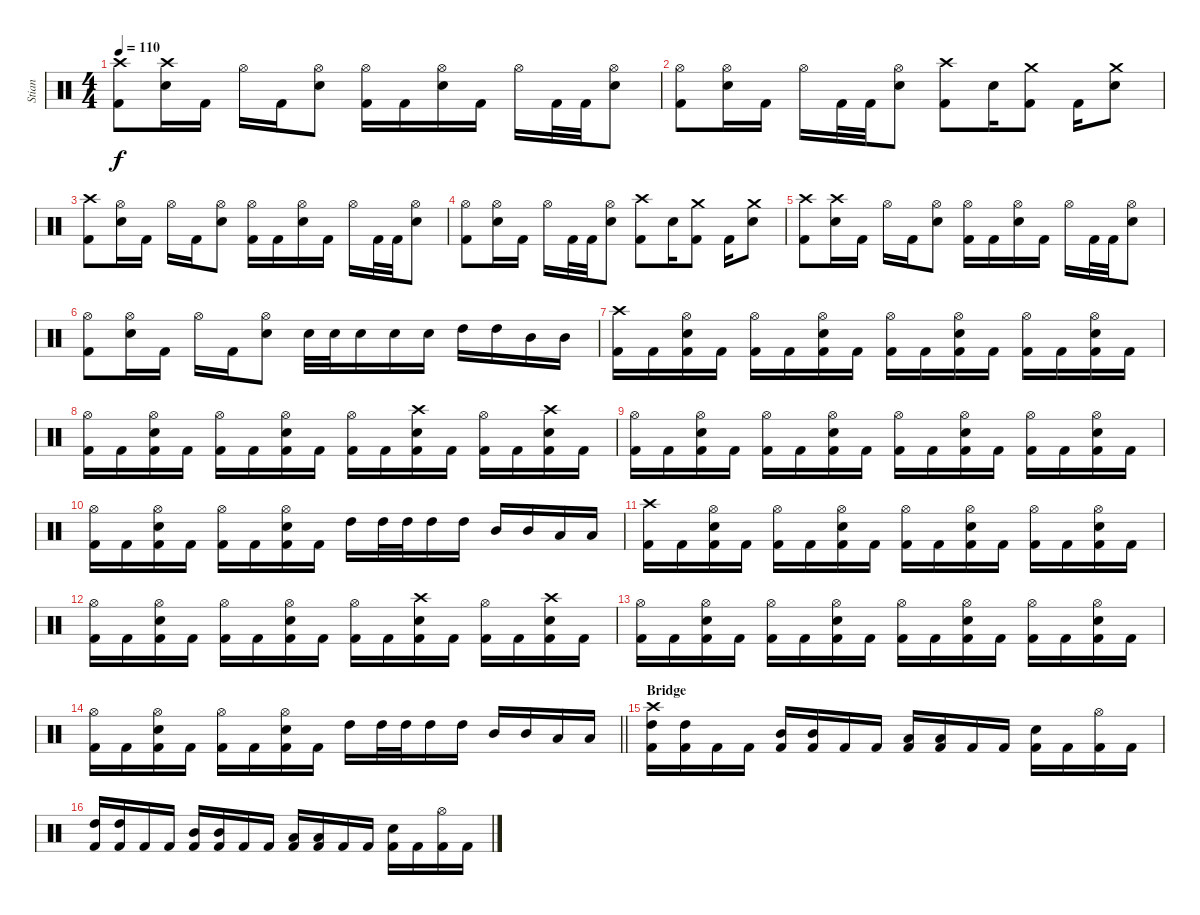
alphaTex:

\track ("Stian" "Stian") {instrument percussion}
\staff {score}
\articulation defaults
\ts (4 4)
\tempo 110
\clef neutral
\ks c
("Crash high (hit)" "Kick (hit) 2").8{dy f} ("Crash high (hit)" "Electric Snare (hit)").16 "Kick (hit) 2".16 "Hi-Hat (open)".16 "Kick (hit) 2".16 ("Hi-Hat (open)" "Electric Snare (hit)").8 ("Hi-Hat (open)" "Kick (hit) 2").16 "Kick (hit) 2".16 ("Hi-Hat (open)" "Electric Snare (hit)").16 "Kick (hit) 2".16 "Hi-Hat (open)".16 "Kick (hit) 2".32 "Kick (hit) 2".32 ("Hi-Hat (open)" "Electric Snare (hit)").8 |
("Hi-Hat (open)" "Kick (hit) 2").8 ("Hi-Hat (open)" "Electric Snare (hit)").16 "Kick (hit) 2".16 "Hi-Hat (open)".16 "Kick (hit) 2".32 "Kick (hit) 2".32 ("Hi-Hat (open)" "Electric Snare (hit)").8 ("Crash high (hit)" "Kick (hit) 2").8 "Electric Snare (hit)".16 ("Crash medium (hit)" "Kick (hit) 2").8 "Kick (hit) 2".16 ("Crash medium (hit)" "Electric Snare (hit)").8 |
("Crash high (hit)" "Kick (hit) 2").8 ("Hi-Hat (open)" "Electric Snare (hit)").16 "Kick (hit) 2".16 "Hi-Hat (open)".16 "Kick (hit) 2".16 ("Hi-Hat (open)" "Electric Snare (hit)").8 ("Hi-Hat (open)" "Kick (hit) 2").16 "Kick (hit) 2".16 ("Hi-Hat (open)" "Electric Snare (hit)").16 "Kick (hit) 2".16 "Hi-Hat (open)".16 "Kick (hit) 2".32 "Kick (hit) 2".32 ("Hi-Hat (open)" "Electric Snare (hit)").8 |
("Hi-Hat (open)" "Kick (hit) 2").8 ("Hi-Hat (open)" "Electric Snare (hit)").16 "Kick (hit) 2".16 "Hi-Hat (open)".16 "Kick (hit) 2".32 "Kick (hit) 2".32 ("Hi-Hat (open)" "Electric Snare (hit)").8 ("Crash high (hit)" "Kick (hit) 2").8 "Electric Snare (hit)".16 ("Crash medium (hit)" "Kick (hit) 2").8 "Kick (hit) 2".16 ("Crash medium (hit)" "Electric Snare (hit)").8 |
("Crash high (hit)" "Kick (hit) 2").8 ("Crash high (hit)" "Electric Snare (hit)").16 "Kick (hit) 2".16 "Hi-Hat (open)".16 "Kick (hit) 2".16 ("Hi-Hat (open)" "Electric Snare (hit)").8 ("Hi-Hat (open)" "Kick (hit) 2").16 "Kick (hit) 2".16 ("Hi-Hat (open)" "Electric Snare (hit)").16 "Kick (hit) 2".16 "Hi-Hat (open)".16 "Kick (hit) 2".32 "Kick (hit) 2".32 ("Hi-Hat (open)" "Electric Snare (hit)").8 |
("Hi-Hat (open)" "Kick (hit) 2").8 ("Hi-Hat (open)" "Electric Snare (hit)").16 "Kick (hit) 2".16 "Hi-Hat (open)".16 "Kick (hit) 2".16 ("Hi-Hat (open)" "Electric Snare (hit)").8 "Electric Snare (hit)".32 "Electric Snare (hit)".32 "Electric Snare (hit)".16 "Electric Snare (hit)".16 "Electric Snare (hit)".16 "High Tom (hit)".16 "High Tom (hit)".16 "Mid Tom (hit)".16 "Mid Tom (hit)".16 |
("Crash high (hit)" "Kick (hit) 2").16 "Kick (hit) 2".16 ("Hi-Hat (open)" "Electric Snare (hit)" "Kick (hit) 2").16 "Kick (hit) 2".16 ("Hi-Hat (open)" "Kick (hit) 2").16 "Kick (hit) 2".16 ("Hi-Hat (open)" "Electric Snare (hit)" "Kick (hit) 2").16 "Kick (hit) 2".16 ("Hi-Hat (open)" "Kick (hit) 2").16 "Kick (hit) 2".16 ("Hi-Hat (open)" "Electric Snare (hit)" "Kick (hit) 2").16 "Kick (hit) 2".16 ("Hi-Hat (open)" "Kick (hit) 2").16 "Kick (hit) 2".16 ("Hi-Hat (open)" "Electric Snare (hit)" "Kick (hit) 2").16 "Kick (hit) 2".16 |
("Hi-Hat (open)" "Kick (hit) 2").16 "Kick (hit) 2".16 ("Hi-Hat (open)" "Electric Snare (hit)" "Kick (hit) 2").16 "Kick (hit) 2".16 ("Hi-Hat (open)" "Kick (hit) 2").16 "Kick (hit) 2".16 ("Hi-Hat (open)" "Electric Snare (hit)" "Kick (hit) 2").16 "Kick (hit) 2".16 ("Hi-Hat (open)" "Kick (hit) 2").16 "Kick (hit) 2".16 ("Crash high (hit)" "Electric Snare (hit)" "Kick (hit) 2").16 "Kick (hit) 2".16 ("Hi-Hat (open)" "Kick (hit) 2").16 "Kick (hit) 2".16 ("Crash high (hit)" "Electric Snare (hit)" "Kick (hit) 2").16 "Kick (hit) 2".16 |
("Hi-Hat (open)" "Kick (hit) 2").16 "Kick (hit) 2".16 ("Hi-Hat (open)" "Electric Snare (hit)" "Kick (hit) 2").16 "Kick (hit) 2".16 ("Hi-Hat (open)" "Kick (hit) 2").16 "Kick (hit) 2".16 ("Hi-Hat (open)" "Electric Snare (hit)" "Kick (hit) 2").16 "Kick (hit) 2".16 ("Hi-Hat (open)" "Kick (hit) 2").16 "Kick (hit) 2".16 ("Hi-Hat (open)" "Electric Snare (hit)" "Kick (hit) 2").16 "Kick (hit) 2".16 ("Hi-Hat (open)" "Kick (hit) 2").16 "Kick (hit) 2".16 ("Hi-Hat (open)" "Electric Snare (hit)" "Kick (hit) 2").16 "Kick (hit) 2".16 |
("Hi-Hat (open)" "Kick (hit) 2").16 "Kick (hit) 2".16 ("Hi-Hat (open)" "Electric Snare (hit)" "Kick (hit) 2").16 "Kick (hit) 2".16 ("Hi-Hat (open)" "Kick (hit) 2").16 "Kick (hit) 2".16 ("Hi-Hat (open)" "Electric Snare (hit)" "Kick (hit) 2").16 "Kick (hit) 2".16 "High Tom (hit)".16 "High Tom (hit)".32 "High Tom (hit)".32 "High Tom (hit)".16 "High Tom (hit)".16 "Mid Tom (hit)".16 "Mid Tom (hit)".16 "Low Tom (hit)".16 "Low Tom (hit)".16 |
("Crash high (hit)" "Kick (hit) 2").16 "Kick (hit) 2".16 ("Hi-Hat (open)" "Electric Snare (hit)" "Kick (hit) 2").16 "Kick (hit) 2".16 ("Hi-Hat (open)" "Kick (hit) 2").16 "Kick (hit) 2".16 ("Hi-Hat (open)" "Electric Snare (hit)" "Kick (hit) 2").16 "Kick (hit) 2".16 ("Hi-Hat (open)" "Kick (hit) 2").16 "Kick (hit) 2".16 ("Hi-Hat (open)" "Electric Snare (hit)" "Kick (hit) 2").16 "Kick (hit) 2".16 ("Hi-Hat (open)" "Kick (hit) 2").16 "Kick (hit) 2".16 ("Hi-Hat (open)" "Electric Snare (hit)" "Kick (hit) 2").16 "Kick (hit) 2".16 |
("Hi-Hat (open)" "Kick (hit) 2").16 "Kick (hit) 2".16 ("Hi-Hat (open)" "Electric Snare (hit)" "Kick (hit) 2").16 "Kick (hit) 2".16 ("Hi-Hat (open)" "Kick (hit) 2").16 "Kick (hit) 2".16 ("Hi-Hat (open)" "Electric Snare (hit)" "Kick (hit) 2").16 "Kick (hit) 2".16 ("Hi-Hat (open)" "Kick (hit) 2").16 "Kick (hit) 2".16 ("Crash high (hit)" "Electric Snare (hit)" "Kick (hit) 2").16 "Kick (hit) 2".16 ("Hi-Hat (open)" "Kick (hit) 2").16 "Kick (hit) 2".16 ("Crash high (hit)" "Electric Snare (hit)" "Kick (hit) 2").16 "Kick (hit) 2".16 |
("Hi-Hat (open)" "Kick (hit) 2").16 "Kick (hit) 2".16 ("Hi-Hat (open)" "Electric Snare (hit)" "Kick (hit) 2").16 "Kick (hit) 2".16 ("Hi-Hat (open)" "Kick (hit) 2").16 "Kick (hit) 2".16 ("Hi-Hat (open)" "Electric Snare (hit)" "Kick (hit) 2").16 "Kick (hit) 2".16 ("Hi-Hat (open)" "Kick (hit) 2").16 "Kick (hit) 2".16 ("Hi-Hat (open)" "Electric Snare (hit)" "Kick (hit) 2").16 "Kick (hit) 2".16 ("Hi-Hat (open)" "Kick (hit) 2").16 "Kick (hit) 2".16 ("Hi-Hat (open)" "Electric Snare (hit)" "Kick (hit) 2").16 "Kick (hit) 2".16 |
\barLineRight lightlight
("Hi-Hat (open)" "Kick (hit) 2").16 "Kick (hit) 2".16 ("Hi-Hat (open)" "Electric Snare (hit)" "Kick (hit) 2").16 "Kick (hit) 2".16 ("Hi-Hat (open)" "Kick (hit) 2").16 "Kick (hit) 2".16 ("Hi-Hat (open)" "Electric Snare (hit)" "Kick (hit) 2").16 "Kick (hit) 2".16 "High Tom (hit)".16 "High Tom (hit)".32 "High Tom (hit)".32 "High Tom (hit)".16 "High Tom (hit)".16 "Mid Tom (hit)".16 "Mid Tom (hit)".16 "Low Tom (hit)".16 "Low Tom (hit)".16 |
\section ("" "Bridge")
("Crash high (hit)" "High Tom (hit)" "Kick (hit) 2").16 ("High Tom (hit)" "Kick (hit) 2").16 "Kick (hit) 2".16 "Kick (hit) 2".16 ("Mid Tom (hit)" "Kick (hit) 2").16 ("Mid Tom (hit)" "Kick (hit) 2").16 "Kick (hit) 2".16 "Kick (hit) 2".16 ("Low Tom (hit)" "Kick (hit) 2").16 ("Low Tom (hit)" "Kick (hit) 2").16 "Kick (hit) 2".16 "Kick (hit) 2".16 ("Electric Snare (hit)" "Kick (hit) 2").16 "Kick (hit) 2".16 ("Hi-Hat (open)" "Kick (hit) 2").16 "Kick (hit) 2".16 |
("High Tom (hit)" "Kick (hit) 2").16 ("High Tom (hit)" "Kick (hit) 2").16 "Kick (hit) 2".16 "Kick (hit) 2".16 ("Mid Tom (hit)" "Kick (hit) 2").16 ("Mid Tom (hit)" "Kick (hit) 2").16 "Kick (hit) 2".16 "Kick (hit) 2".16 ("Low Tom (hit)" "Kick (hit) 2").16 ("Low Tom (hit)" "Kick (hit) 2").16 "Kick (hit) 2".16 "Kick (hit) 2".16 ("Electric Snare (hit)" "Kick (hit) 2").16 "Kick (hit) 2".16 ("Hi-Hat (open)" "Kick (hit) 2").16 "Kick (hit) 2".16
